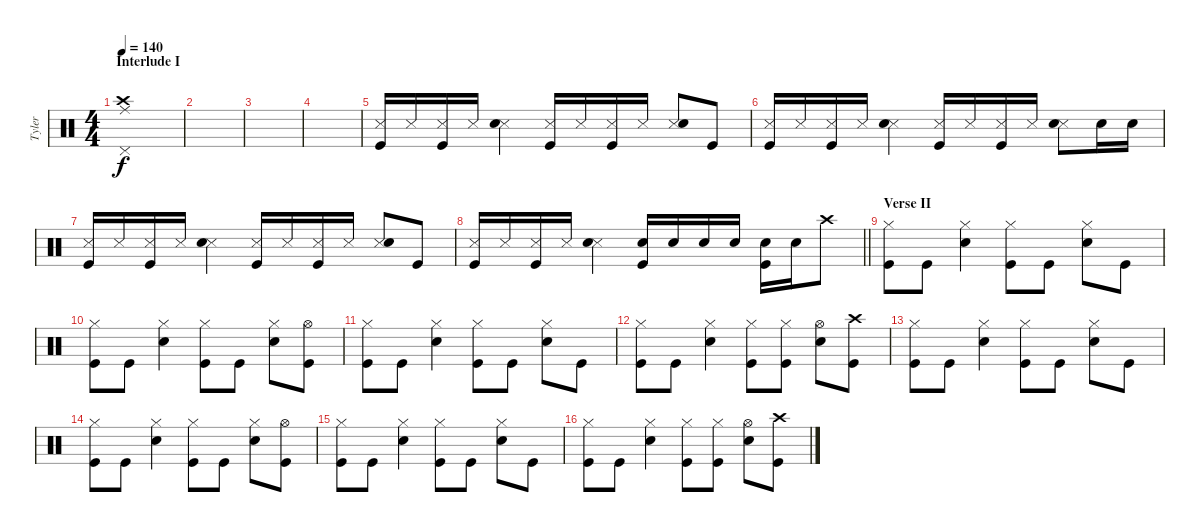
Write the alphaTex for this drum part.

\track ("Tyler" "Tyler") {instrument percussion}
\staff {score}
\articulation defaults
\ts (4 4)
\section ("" "Interlude I")
\tempo 140
\clef neutral
\ks c
("Pedal Hi-Hat (hit)" "Crash high (hit)" "Ride (middle)").1{dy f} |
|
|
|
("Snare (side stick) 3" "Kick (hit)").16 "Snare (side stick) 3".16 ("Snare (side stick) 3" "Kick (hit)").16 "Snare (side stick) 3".16 ("Snare (side stick) 3" "Snare (hit) 2").4 ("Snare (side stick) 3" "Kick (hit)").16 "Snare (side stick) 3".16 ("Snare (side stick) 3" "Kick (hit)").16 "Snare (side stick) 3".16 ("Snare (side stick) 3" "Snare (hit) 2").8 "Kick (hit)".8 |
("Snare (side stick) 3" "Kick (hit)").16 "Snare (side stick) 3".16 ("Snare (side stick) 3" "Kick (hit)").16 "Snare (side stick) 3".16 ("Snare (side stick) 3" "Snare (hit) 2").4 ("Snare (side stick) 3" "Kick (hit)").16 "Snare (side stick) 3".16 ("Snare (side stick) 3" "Kick (hit)").16 "Snare (side stick) 3".16 ("Snare (side stick) 3" "Snare (hit) 2").8 "Snare (hit) 2".16 "Snare (hit) 2".16 |
("Snare (side stick) 3" "Kick (hit)").16 "Snare (side stick) 3".16 ("Snare (side stick) 3" "Kick (hit)").16 "Snare (side stick) 3".16 ("Snare (side stick) 3" "Snare (hit) 2").4 ("Snare (side stick) 3" "Kick (hit)").16 "Snare (side stick) 3".16 ("Snare (side stick) 3" "Kick (hit)").16 "Snare (side stick) 3".16 ("Snare (side stick) 3" "Snare (hit) 2").8 "Kick (hit)".8 |
\barLineRight lightlight
("Snare (side stick) 3" "Kick (hit)").16 "Snare (side stick) 3".16 ("Snare (side stick) 3" "Kick (hit)").16 "Snare (side stick) 3".16 ("Snare (side stick) 3" "Snare (hit) 2").4 ("Snare (hit) 2" "Kick (hit)").16 "Snare (hit) 2".16 "Snare (hit) 2".16 "Snare (hit) 2".16 ("Snare (hit) 2" "Kick (hit)").16 "Snare (hit) 2".16 "Crash high (hit)".8 |
\section ("" "Verse II")
("Hi-Hat (closed)" "Kick (hit)").8 "Kick (hit)".8 ("Hi-Hat (closed)" "Snare (hit) 2").4 ("Hi-Hat (closed)" "Kick (hit)").8 "Kick (hit)".8 ("Hi-Hat (closed)" "Snare (hit) 2").8 "Kick (hit)".8 |
("Hi-Hat (closed)" "Kick (hit)").8 "Kick (hit)".8 ("Hi-Hat (closed)" "Snare (hit) 2").4 ("Hi-Hat (closed)" "Kick (hit)").8 "Kick (hit)".8 ("Hi-Hat (closed)" "Snare (hit) 2").8 ("Hi-Hat (open)" "Kick (hit)").8 |
("Hi-Hat (closed)" "Kick (hit)").8 "Kick (hit)".8 ("Hi-Hat (closed)" "Snare (hit) 2").4 ("Hi-Hat (closed)" "Kick (hit)").8 "Kick (hit)".8 ("Hi-Hat (closed)" "Snare (hit) 2").8 "Kick (hit)".8 |
("Hi-Hat (closed)" "Kick (hit)").8 "Kick (hit)".8 ("Hi-Hat (closed)" "Snare (hit) 2").4 ("Hi-Hat (closed)" "Kick (hit)").8 ("Hi-Hat (closed)" "Kick (hit)").8 ("Hi-Hat (open)" "Snare (hit) 2").8 ("Crash high (hit)" "Kick (hit)").8 |
("Hi-Hat (closed)" "Kick (hit)").8 "Kick (hit)".8 ("Hi-Hat (closed)" "Snare (hit) 2").4 ("Hi-Hat (closed)" "Kick (hit)").8 "Kick (hit)".8 ("Hi-Hat (closed)" "Snare (hit) 2").8 "Kick (hit)".8 |
("Hi-Hat (closed)" "Kick (hit)").8 "Kick (hit)".8 ("Hi-Hat (closed)" "Snare (hit) 2").4 ("Hi-Hat (closed)" "Kick (hit)").8 "Kick (hit)".8 ("Hi-Hat (closed)" "Snare (hit) 2").8 ("Hi-Hat (open)" "Kick (hit)").8 |
("Hi-Hat (closed)" "Kick (hit)").8 "Kick (hit)".8 ("Hi-Hat (closed)" "Snare (hit) 2").4 ("Hi-Hat (closed)" "Kick (hit)").8 "Kick (hit)".8 ("Hi-Hat (closed)" "Snare (hit) 2").8 "Kick (hit)".8 |
("Hi-Hat (closed)" "Kick (hit)").8 "Kick (hit)".8 ("Hi-Hat (closed)" "Snare (hit) 2").4 ("Hi-Hat (closed)" "Kick (hit)").8 ("Hi-Hat (closed)" "Kick (hit)").8 ("Hi-Hat (open)" "Snare (hit) 2").8 ("Crash high (hit)" "Kick (hit)").8
